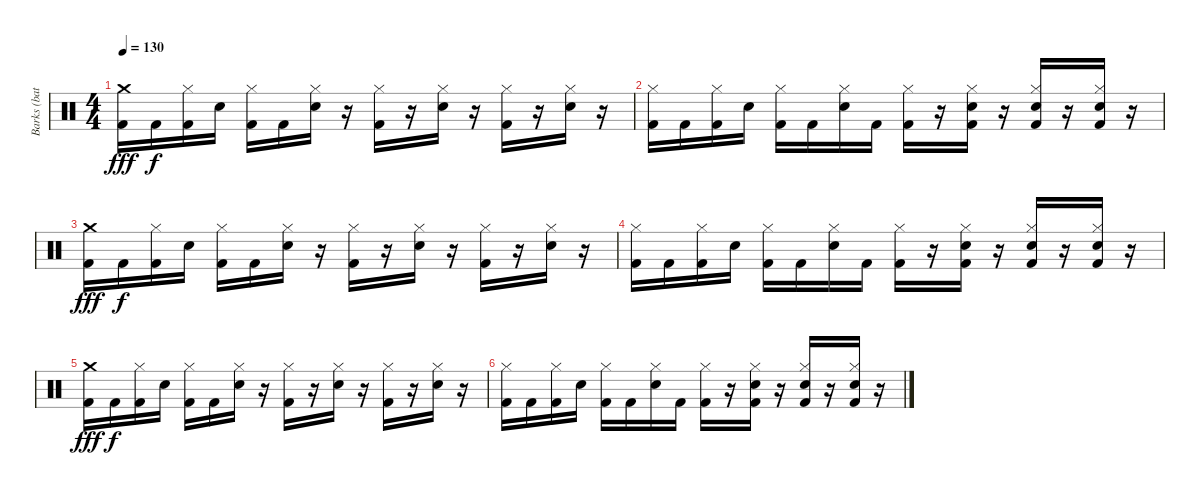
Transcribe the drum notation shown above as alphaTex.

\track ("Barks (batterie)" "Barks (bat") {instrument percussion}
\staff {score}
\articulation defaults
\ts (4 4)
\tempo 130
\clef neutral
\ks c
("Crash medium (hit)" "Kick (hit) 2").16{dy fff} "Kick (hit) 2".16{dy f} ("Hi-Hat (closed)" "Kick (hit) 2").16 "Electric Snare (hit)".16 ("Hi-Hat (closed)" "Kick (hit) 2").16 "Kick (hit) 2".16 ("Hi-Hat (closed)" "Electric Snare (hit)").16 r.16 ("Hi-Hat (closed)" "Kick (hit) 2").16 r.16 ("Hi-Hat (closed)" "Electric Snare (hit)").16 r.16 ("Hi-Hat (closed)" "Kick (hit) 2").16 r.16 ("Hi-Hat (closed)" "Electric Snare (hit)").16 r.16 |
("Hi-Hat (closed)" "Kick (hit) 2").16 "Kick (hit) 2".16 ("Hi-Hat (closed)" "Kick (hit) 2").16 "Electric Snare (hit)".16 ("Hi-Hat (closed)" "Kick (hit) 2").16 "Kick (hit) 2".16 ("Hi-Hat (closed)" "Electric Snare (hit)").16 "Kick (hit) 2".16 ("Hi-Hat (closed)" "Kick (hit) 2").16 r.16 ("Hi-Hat (closed)" "Electric Snare (hit)" "Kick (hit) 2").16 r.16 ("Hi-Hat (closed)" "Electric Snare (hit)" "Kick (hit) 2").16 r.16 ("Hi-Hat (closed)" "Electric Snare (hit)" "Kick (hit) 2").16 r.16 |
("Crash medium (hit)" "Kick (hit) 2").16{dy fff volume 0} "Kick (hit) 2".16{dy f} ("Hi-Hat (closed)" "Kick (hit) 2").16 "Electric Snare (hit)".16 ("Hi-Hat (closed)" "Kick (hit) 2").16 "Kick (hit) 2".16 ("Hi-Hat (closed)" "Electric Snare (hit)").16 r.16 ("Hi-Hat (closed)" "Kick (hit) 2").16 r.16 ("Hi-Hat (closed)" "Electric Snare (hit)").16 r.16 ("Hi-Hat (closed)" "Kick (hit) 2").16 r.16 ("Hi-Hat (closed)" "Electric Snare (hit)").16 r.16 |
("Hi-Hat (closed)" "Kick (hit) 2").16 "Kick (hit) 2".16 ("Hi-Hat (closed)" "Kick (hit) 2").16 "Electric Snare (hit)".16 ("Hi-Hat (closed)" "Kick (hit) 2").16 "Kick (hit) 2".16 ("Hi-Hat (closed)" "Electric Snare (hit)").16 "Kick (hit) 2".16 ("Hi-Hat (closed)" "Kick (hit) 2").16 r.16 ("Hi-Hat (closed)" "Electric Snare (hit)" "Kick (hit) 2").16 r.16 ("Hi-Hat (closed)" "Electric Snare (hit)" "Kick (hit) 2").16 r.16 ("Hi-Hat (closed)" "Electric Snare (hit)" "Kick (hit) 2").16 r.16 |
("Crash medium (hit)" "Kick (hit) 2").16{dy fff} "Kick (hit) 2".16{dy f} ("Hi-Hat (closed)" "Kick (hit) 2").16 "Electric Snare (hit)".16 ("Hi-Hat (closed)" "Kick (hit) 2").16 "Kick (hit) 2".16 ("Hi-Hat (closed)" "Electric Snare (hit)").16 r.16 ("Hi-Hat (closed)" "Kick (hit) 2").16 r.16 ("Hi-Hat (closed)" "Electric Snare (hit)").16 r.16 ("Hi-Hat (closed)" "Kick (hit) 2").16 r.16 ("Hi-Hat (closed)" "Electric Snare (hit)").16 r.16 |
("Hi-Hat (closed)" "Kick (hit) 2").16 "Kick (hit) 2".16 ("Hi-Hat (closed)" "Kick (hit) 2").16 "Electric Snare (hit)".16 ("Hi-Hat (closed)" "Kick (hit) 2").16 "Kick (hit) 2".16 ("Hi-Hat (closed)" "Electric Snare (hit)").16 "Kick (hit) 2".16 ("Hi-Hat (closed)" "Kick (hit) 2").16 r.16 ("Hi-Hat (closed)" "Electric Snare (hit)" "Kick (hit) 2").16 r.16 ("Hi-Hat (closed)" "Electric Snare (hit)" "Kick (hit) 2").16 r.16 ("Hi-Hat (closed)" "Electric Snare (hit)" "Kick (hit) 2").16 r.16
